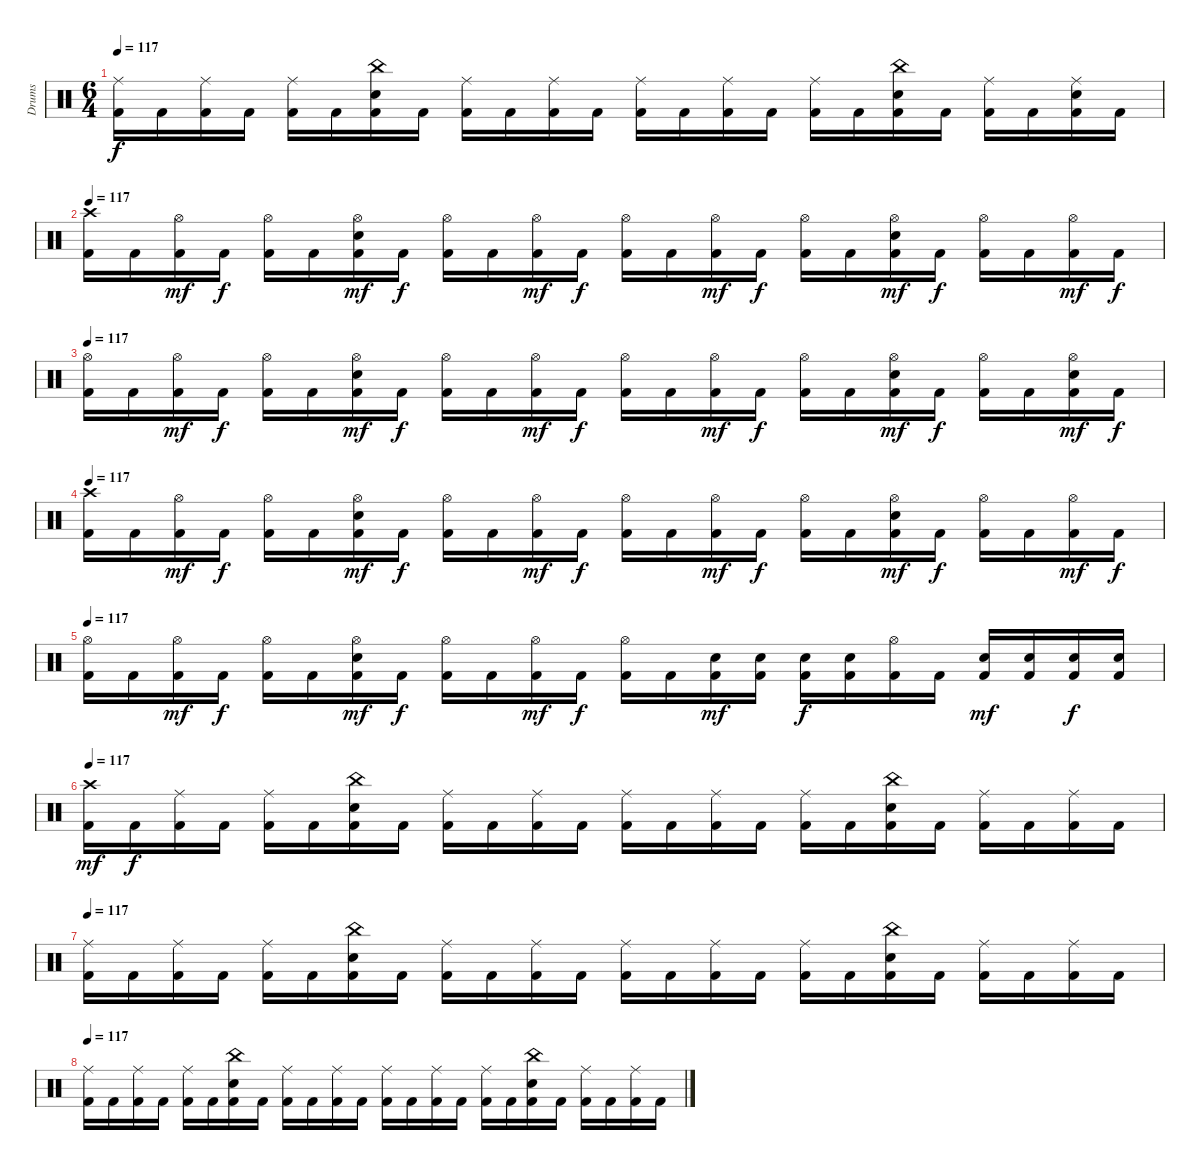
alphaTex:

\track ("Drums" "Drums") {instrument percussion}
\staff {score}
\articulation defaults
\ts (6 4)
\tempo 117
\clef neutral
\ks c
("Ride (middle)" "Kick (hit) 2").16{dy f} "Kick (hit) 2".16 ("Ride (middle)" "Kick (hit) 2").16 "Kick (hit) 2".16 ("Ride (middle)" "Kick (hit) 2").16 "Kick (hit) 2".16 ("China (hit)" "Electric Snare (hit)" "Kick (hit) 2").16 "Kick (hit) 2".16 ("Ride (middle)" "Kick (hit) 2").16 "Kick (hit) 2".16 ("Ride (middle)" "Kick (hit) 2").16 "Kick (hit) 2".16 ("Ride (middle)" "Kick (hit) 2").16 "Kick (hit) 2".16 ("Ride (middle)" "Kick (hit) 2").16 "Kick (hit) 2".16 ("Ride (middle)" "Kick (hit) 2").16 "Kick (hit) 2".16 ("China (hit)" "Electric Snare (hit)" "Kick (hit) 2").16 "Kick (hit) 2".16 ("Ride (middle)" "Kick (hit) 2").16 "Kick (hit) 2".16 ("Ride (middle)" "Electric Snare (hit)" "Kick (hit) 2").16 "Kick (hit) 2".16 |
\tempo 117
("Crash high (hit)" "Kick (hit) 2").16 "Kick (hit) 2".16 ("Hi-Hat (open)" "Kick (hit) 2").16{dy mf} "Kick (hit) 2".16{dy f} ("Hi-Hat (open)" "Kick (hit) 2").16 "Kick (hit) 2".16 ("Hi-Hat (open)" "Electric Snare (hit)" "Kick (hit) 2").16{dy mf} "Kick (hit) 2".16{dy f} ("Hi-Hat (open)" "Kick (hit) 2").16 "Kick (hit) 2".16 ("Hi-Hat (open)" "Kick (hit) 2").16{dy mf} "Kick (hit) 2".16{dy f} ("Hi-Hat (open)" "Kick (hit) 2").16 "Kick (hit) 2".16 ("Hi-Hat (open)" "Kick (hit) 2").16{dy mf} "Kick (hit) 2".16{dy f} ("Hi-Hat (open)" "Kick (hit) 2").16 "Kick (hit) 2".16 ("Hi-Hat (open)" "Electric Snare (hit)" "Kick (hit) 2").16{dy mf} "Kick (hit) 2".16{dy f} ("Hi-Hat (open)" "Kick (hit) 2").16 "Kick (hit) 2".16 ("Hi-Hat (open)" "Kick (hit) 2").16{dy mf} "Kick (hit) 2".16{dy f} |
\tempo 117
("Hi-Hat (open)" "Kick (hit) 2").16 "Kick (hit) 2".16 ("Hi-Hat (open)" "Kick (hit) 2").16{dy mf} "Kick (hit) 2".16{dy f} ("Hi-Hat (open)" "Kick (hit) 2").16 "Kick (hit) 2".16 ("Hi-Hat (open)" "Electric Snare (hit)" "Kick (hit) 2").16{dy mf} "Kick (hit) 2".16{dy f} ("Hi-Hat (open)" "Kick (hit) 2").16 "Kick (hit) 2".16 ("Hi-Hat (open)" "Kick (hit) 2").16{dy mf} "Kick (hit) 2".16{dy f} ("Hi-Hat (open)" "Kick (hit) 2").16 "Kick (hit) 2".16 ("Hi-Hat (open)" "Kick (hit) 2").16{dy mf} "Kick (hit) 2".16{dy f} ("Hi-Hat (open)" "Kick (hit) 2").16 "Kick (hit) 2".16 ("Hi-Hat (open)" "Electric Snare (hit)" "Kick (hit) 2").16{dy mf} "Kick (hit) 2".16{dy f} ("Hi-Hat (open)" "Kick (hit) 2").16 "Kick (hit) 2".16 ("Hi-Hat (open)" "Electric Snare (hit)" "Kick (hit) 2").16{dy mf} "Kick (hit) 2".16{dy f} |
\tempo 117
("Crash high (hit)" "Kick (hit) 2").16 "Kick (hit) 2".16 ("Hi-Hat (open)" "Kick (hit) 2").16{dy mf} "Kick (hit) 2".16{dy f} ("Hi-Hat (open)" "Kick (hit) 2").16 "Kick (hit) 2".16 ("Hi-Hat (open)" "Electric Snare (hit)" "Kick (hit) 2").16{dy mf} "Kick (hit) 2".16{dy f} ("Hi-Hat (open)" "Kick (hit) 2").16 "Kick (hit) 2".16 ("Hi-Hat (open)" "Kick (hit) 2").16{dy mf} "Kick (hit) 2".16{dy f} ("Hi-Hat (open)" "Kick (hit) 2").16 "Kick (hit) 2".16 ("Hi-Hat (open)" "Kick (hit) 2").16{dy mf} "Kick (hit) 2".16{dy f} ("Hi-Hat (open)" "Kick (hit) 2").16 "Kick (hit) 2".16 ("Hi-Hat (open)" "Electric Snare (hit)" "Kick (hit) 2").16{dy mf} "Kick (hit) 2".16{dy f} ("Hi-Hat (open)" "Kick (hit) 2").16 "Kick (hit) 2".16 ("Hi-Hat (open)" "Kick (hit) 2").16{dy mf} "Kick (hit) 2".16{dy f} |
\tempo 117
("Hi-Hat (open)" "Kick (hit) 2").16 "Kick (hit) 2".16 ("Hi-Hat (open)" "Kick (hit) 2").16{dy mf} "Kick (hit) 2".16{dy f} ("Hi-Hat (open)" "Kick (hit) 2").16 "Kick (hit) 2".16 ("Hi-Hat (open)" "Electric Snare (hit)" "Kick (hit) 2").16{dy mf} "Kick (hit) 2".16{dy f} ("Hi-Hat (open)" "Kick (hit) 2").16 "Kick (hit) 2".16 ("Hi-Hat (open)" "Kick (hit) 2").16{dy mf} "Kick (hit) 2".16{dy f} ("Hi-Hat (open)" "Kick (hit) 2").16 "Kick (hit) 2".16 ("Electric Snare (hit)" "Kick (hit) 2").16{dy mf} ("Electric Snare (hit)" "Kick (hit) 2").16 ("Electric Snare (hit)" "Kick (hit) 2").16{dy f} ("Electric Snare (hit)" "Kick (hit) 2").16 ("Hi-Hat (open)" "Kick (hit) 2").16 "Kick (hit) 2".16 ("Electric Snare (hit)" "Kick (hit) 2").16{dy mf} ("Electric Snare (hit)" "Kick (hit) 2").16 ("Electric Snare (hit)" "Kick (hit) 2").16{dy f} ("Electric Snare (hit)" "Kick (hit) 2").16 |
\tempo 117
("Crash high (hit)" "Kick (hit) 2").16{dy mf} "Kick (hit) 2".16{dy f} ("Ride (middle)" "Kick (hit) 2").16 "Kick (hit) 2".16 ("Ride (middle)" "Kick (hit) 2").16 "Kick (hit) 2".16 ("China (hit)" "Electric Snare (hit)" "Kick (hit) 2").16 "Kick (hit) 2".16 ("Ride (middle)" "Kick (hit) 2").16 "Kick (hit) 2".16 ("Ride (middle)" "Kick (hit) 2").16 "Kick (hit) 2".16 ("Ride (middle)" "Kick (hit) 2").16 "Kick (hit) 2".16 ("Ride (middle)" "Kick (hit) 2").16 "Kick (hit) 2".16 ("Ride (middle)" "Kick (hit) 2").16 "Kick (hit) 2".16 ("China (hit)" "Electric Snare (hit)" "Kick (hit) 2").16 "Kick (hit) 2".16 ("Ride (middle)" "Kick (hit) 2").16 "Kick (hit) 2".16 ("Ride (middle)" "Kick (hit) 2").16 "Kick (hit) 2".16 |
\tempo 117
("Ride (middle)" "Kick (hit) 2").16 "Kick (hit) 2".16 ("Ride (middle)" "Kick (hit) 2").16 "Kick (hit) 2".16 ("Ride (middle)" "Kick (hit) 2").16 "Kick (hit) 2".16 ("China (hit)" "Electric Snare (hit)" "Kick (hit) 2").16 "Kick (hit) 2".16 ("Ride (middle)" "Kick (hit) 2").16 "Kick (hit) 2".16 ("Ride (middle)" "Kick (hit) 2").16 "Kick (hit) 2".16 ("Ride (middle)" "Kick (hit) 2").16 "Kick (hit) 2".16 ("Ride (middle)" "Kick (hit) 2").16 "Kick (hit) 2".16 ("Ride (middle)" "Kick (hit) 2").16 "Kick (hit) 2".16 ("China (hit)" "Electric Snare (hit)" "Kick (hit) 2").16 "Kick (hit) 2".16 ("Ride (middle)" "Kick (hit) 2").16 "Kick (hit) 2".16 ("Ride (middle)" "Kick (hit) 2").16 "Kick (hit) 2".16 |
\tempo 117
("Ride (middle)" "Kick (hit) 2").16 "Kick (hit) 2".16 ("Ride (middle)" "Kick (hit) 2").16 "Kick (hit) 2".16 ("Ride (middle)" "Kick (hit) 2").16 "Kick (hit) 2".16 ("China (hit)" "Electric Snare (hit)" "Kick (hit) 2").16 "Kick (hit) 2".16 ("Ride (middle)" "Kick (hit) 2").16 "Kick (hit) 2".16 ("Ride (middle)" "Kick (hit) 2").16 "Kick (hit) 2".16 ("Ride (middle)" "Kick (hit) 2").16 "Kick (hit) 2".16 ("Ride (middle)" "Kick (hit) 2").16 "Kick (hit) 2".16 ("Ride (middle)" "Kick (hit) 2").16 "Kick (hit) 2".16 ("China (hit)" "Electric Snare (hit)" "Kick (hit) 2").16 "Kick (hit) 2".16 ("Ride (middle)" "Kick (hit) 2").16 "Kick (hit) 2".16 ("Ride (middle)" "Kick (hit) 2").16 "Kick (hit) 2".16
